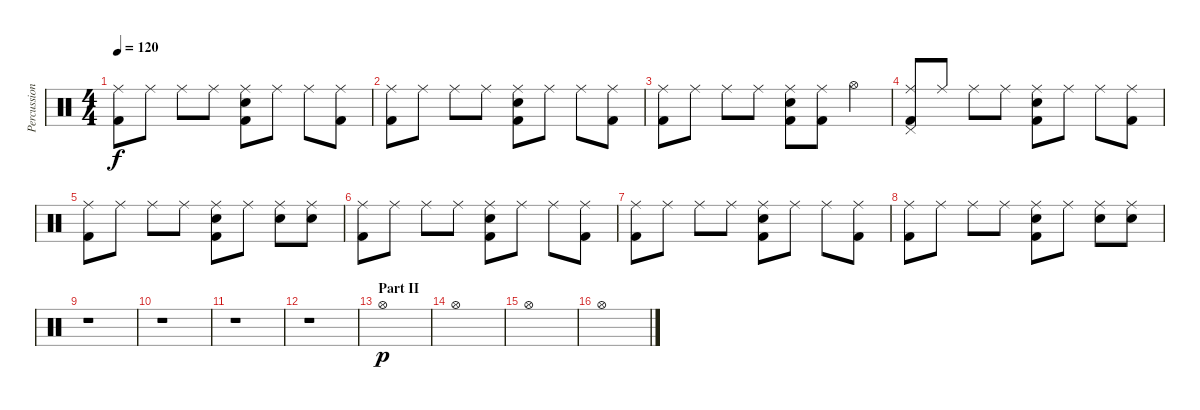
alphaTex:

\track ("Percussion" "Percussion") {instrument percussion}
\staff {score}
\articulation defaults
\ts (4 4)
\tempo 120
\clef neutral
\ks c
("Ride (middle)" "Kick (hit) 2").8{dy f} "Ride (middle)".8 "Ride (middle)".8 "Ride (middle)".8 ("Ride (middle)" "Snare (hit) 2" "Kick (hit) 2").8 "Ride (middle)".8 "Ride (middle)".8 ("Ride (middle)" "Kick (hit) 2").8 |
("Ride (middle)" "Kick (hit) 2").8 "Ride (middle)".8 "Ride (middle)".8 "Ride (middle)".8 ("Ride (middle)" "Snare (hit) 2" "Kick (hit) 2").8 "Ride (middle)".8 "Ride (middle)".8 ("Ride (middle)" "Kick (hit) 2").8 |
("Ride (middle)" "Kick (hit) 2").8 "Ride (middle)".8 "Ride (middle)".8 "Ride (middle)".8 ("Ride (middle)" "Snare (hit) 2" "Kick (hit) 2").8 ("Ride (middle)" "Kick (hit) 2").8 "Hi-Hat (open)".4 |
("Ride (middle)" "Pedal Hi-Hat (hit)" "Kick (hit) 2").8 "Ride (middle)".8 "Ride (middle)".8 "Ride (middle)".8 ("Ride (middle)" "Snare (hit) 2" "Kick (hit) 2").8 "Ride (middle)".8 "Ride (middle)".8 ("Ride (middle)" "Kick (hit) 2").8 |
("Ride (middle)" "Kick (hit) 2").8 "Ride (middle)".8 "Ride (middle)".8 "Ride (middle)".8 ("Ride (middle)" "Snare (hit) 2" "Kick (hit) 2").8 "Ride (middle)".8 ("Ride (middle)" "Snare (hit) 2").8 ("Ride (middle)" "Snare (hit) 2").8 |
("Ride (middle)" "Kick (hit) 2").8 "Ride (middle)".8 "Ride (middle)".8 "Ride (middle)".8 ("Ride (middle)" "Snare (hit) 2" "Kick (hit) 2").8 "Ride (middle)".8 "Ride (middle)".8 ("Ride (middle)" "Kick (hit) 2").8 |
("Ride (middle)" "Kick (hit) 2").8 "Ride (middle)".8 "Ride (middle)".8 "Ride (middle)".8 ("Ride (middle)" "Snare (hit) 2" "Kick (hit) 2").8 "Ride (middle)".8 "Ride (middle)".8 ("Ride (middle)" "Kick (hit) 2").8 |
("Ride (middle)" "Kick (hit) 2").8 "Ride (middle)".8 "Ride (middle)".8 "Ride (middle)".8 ("Ride (middle)" "Snare (hit) 2" "Kick (hit) 2").8 "Ride (middle)".8 ("Ride (middle)" "Snare (hit) 2").8 ("Ride (middle)" "Snare (hit) 2").8 |
r.1 |
r.1 |
r.1 |
r.1 |
\section ("" "Part II")
"Hi-Hat (open)".1{dy p} |
"Hi-Hat (open)".1 |
"Hi-Hat (open)".1 |
"Hi-Hat (open)".1
